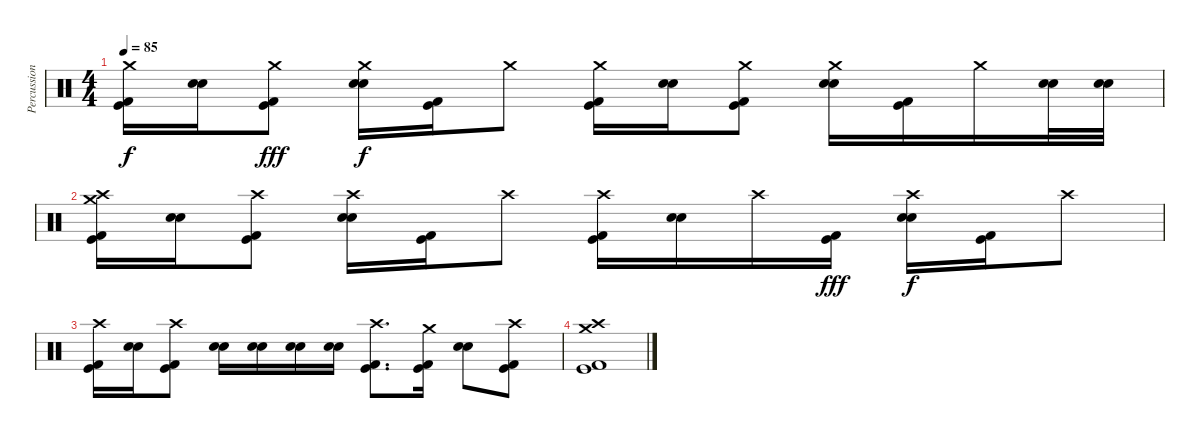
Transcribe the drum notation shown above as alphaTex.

\track ("Percussion" "Percussion") {instrument percussion}
\staff {score}
\articulation defaults
\ts (4 4)
\tempo 85
\clef neutral
\ks c
("Crash medium (hit)" "Kick (hit)" "Kick (hit) 2").16{dy f} ("Electric Snare (hit)" "Snare (hit) 2").16 ("Crash medium (hit)" "Kick (hit)" "Kick (hit) 2").8{dy fff} ("Crash medium (hit)" "Electric Snare (hit)" "Snare (hit) 2").16{dy f} ("Kick (hit)" "Kick (hit) 2").16 "Crash medium (hit)".8 ("Crash medium (hit)" "Kick (hit)" "Kick (hit) 2").16 ("Electric Snare (hit)" "Snare (hit) 2").16 ("Crash medium (hit)" "Kick (hit)" "Kick (hit) 2").8 ("Crash medium (hit)" "Electric Snare (hit)" "Snare (hit) 2").16 ("Kick (hit)" "Kick (hit) 2").16 "Crash medium (hit)".16 ("Electric Snare (hit)" "Snare (hit) 2").32 ("Electric Snare (hit)" "Snare (hit) 2").32 |
("Crash high (hit)" "Crash medium (hit)" "Kick (hit)" "Kick (hit) 2").16 ("Electric Snare (hit)" "Snare (hit) 2").16 ("Crash high (hit)" "Kick (hit)" "Kick (hit) 2").8 ("Crash high (hit)" "Electric Snare (hit)" "Snare (hit) 2").16 ("Kick (hit)" "Kick (hit) 2").16 "Crash high (hit)".8 ("Crash high (hit)" "Kick (hit)" "Kick (hit) 2").16 ("Electric Snare (hit)" "Snare (hit) 2").16 "Crash high (hit)".16 ("Kick (hit)" "Kick (hit) 2").16{dy fff} ("Crash high (hit)" "Electric Snare (hit)" "Snare (hit) 2").16{dy f} ("Kick (hit)" "Kick (hit) 2").16 "Crash high (hit)".8 |
("Crash high (hit)" "Kick (hit)" "Kick (hit) 2").16 ("Electric Snare (hit)" "Snare (hit) 2").16 ("Crash high (hit)" "Kick (hit)" "Kick (hit) 2").8 ("Electric Snare (hit)" "Snare (hit) 2").16 ("Electric Snare (hit)" "Snare (hit) 2").16 ("Electric Snare (hit)" "Snare (hit) 2").16 ("Electric Snare (hit)" "Snare (hit) 2").16 ("Crash high (hit)" "Kick (hit)" "Kick (hit) 2").8{d} ("Crash medium (hit)" "Kick (hit)" "Kick (hit) 2").16 ("Electric Snare (hit)" "Snare (hit) 2").8 ("Crash high (hit)" "Kick (hit)" "Kick (hit) 2").8 |
("Crash medium (hit)" "Crash high (hit)" "Kick (hit)" "Kick (hit) 2").1
